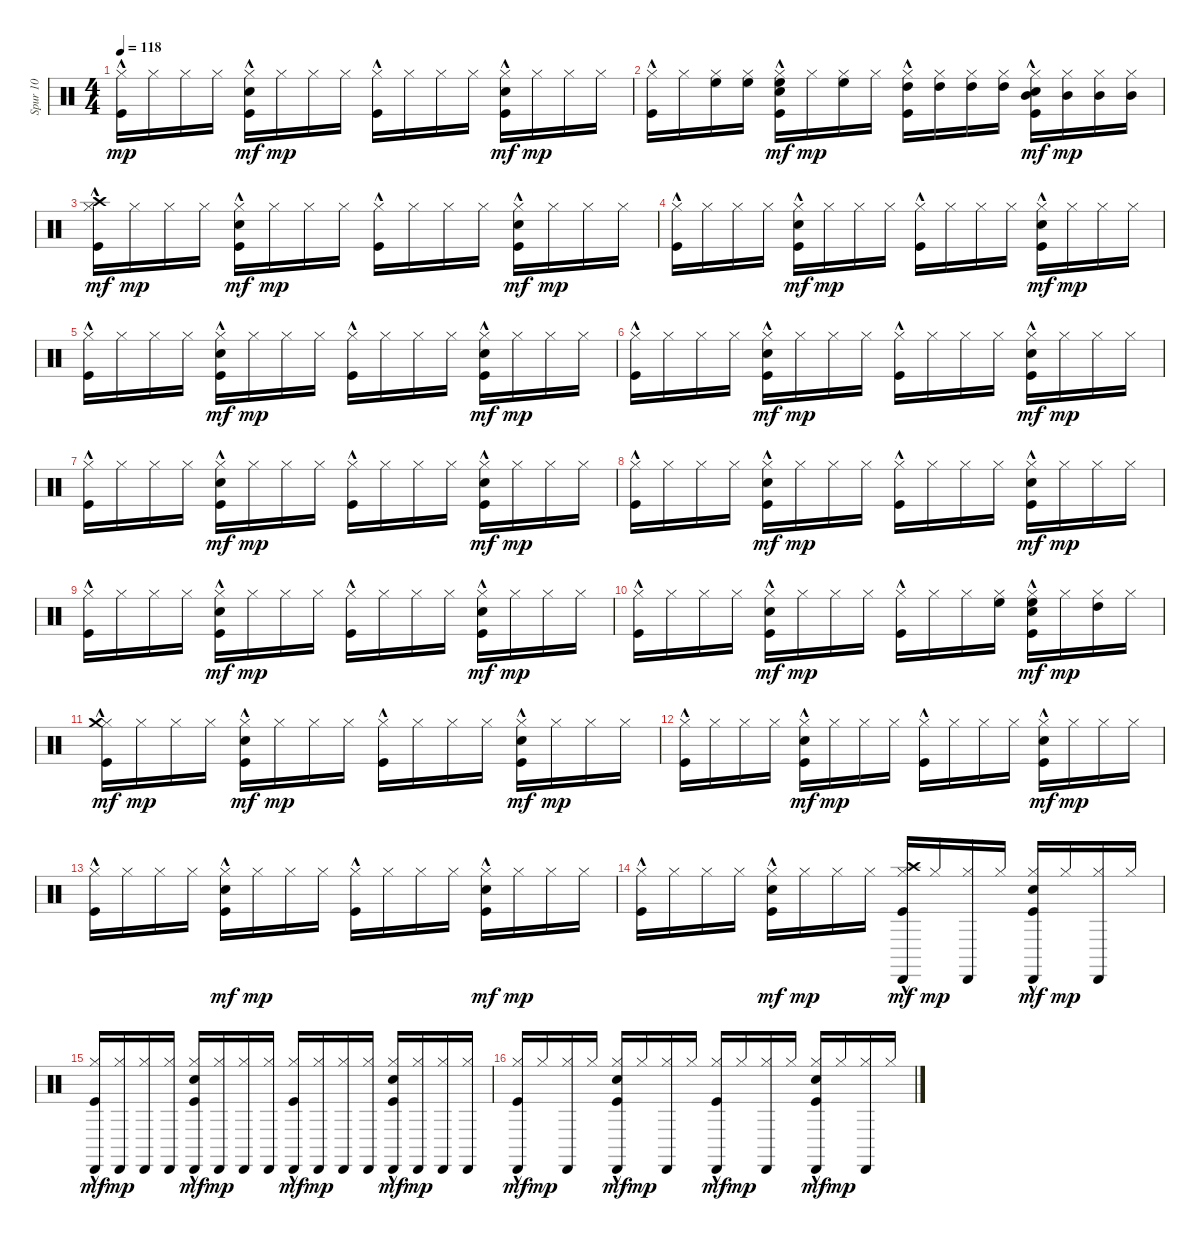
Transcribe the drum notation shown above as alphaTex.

\track ("Spur 10" "Spur 10") {instrument percussion}
\staff {score}
\articulation defaults
\ts (4 4)
\tempo 118
\clef neutral
\ks c
("Hi-Hat (closed)" "Kick (hit)"{hac}).16{dy mp} "Hi-Hat (closed)".16 "Hi-Hat (closed)".16 "Hi-Hat (closed)".16 ("Hi-Hat (closed)" "Kick (hit)"{hac} "Electric Snare (hit)").16{dy mf} "Hi-Hat (closed)".16{dy mp} "Hi-Hat (closed)".16 "Hi-Hat (closed)".16 ("Hi-Hat (closed)" "Kick (hit)"{hac}).16 "Hi-Hat (closed)".16 "Hi-Hat (closed)".16 "Hi-Hat (closed)".16 ("Hi-Hat (closed)" "Kick (hit)"{hac} "Electric Snare (hit)").16{dy mf} "Hi-Hat (closed)".16{dy mp} "Hi-Hat (closed)".16 "Hi-Hat (closed)".16 |
("Hi-Hat (closed)" "Kick (hit)"{hac}).16 "Hi-Hat (closed)".16 ("High Floor Tom (hit)" "Hi-Hat (closed)").16 ("High Floor Tom (hit)" "Hi-Hat (closed)").16 ("High Floor Tom (hit)" "Hi-Hat (closed)" "Kick (hit)"{hac} "Electric Snare (hit)").16{dy mf} "Hi-Hat (closed)".16{dy mp} ("High Floor Tom (hit)" "Hi-Hat (closed)").16 "Hi-Hat (closed)".16 ("High Tom (hit)" "Hi-Hat (closed)" "Kick (hit)"{hac}).16 ("High Tom (hit)" "Hi-Hat (closed)").16 ("High Tom (hit)" "Hi-Hat (closed)").16 ("High Tom (hit)" "Hi-Hat (closed)").16 ("Mid Tom (hit)" "Hi-Hat (closed)" "Kick (hit)"{hac} "Electric Snare (hit)").16{dy mf} ("Mid Tom (hit)" "Hi-Hat (closed)").16{dy mp} ("Mid Tom (hit)" "Hi-Hat (closed)").16 ("Mid Tom (hit)" "Hi-Hat (closed)").16 |
("Hi-Hat (closed)" "Kick (hit)"{hac} "Crash high (hit)"{hac}).16{dy mf} "Hi-Hat (closed)".16{dy mp} "Hi-Hat (closed)".16 "Hi-Hat (closed)".16 ("Hi-Hat (closed)" "Kick (hit)"{hac} "Electric Snare (hit)").16{dy mf} "Hi-Hat (closed)".16{dy mp} "Hi-Hat (closed)".16 "Hi-Hat (closed)".16 ("Hi-Hat (closed)" "Kick (hit)"{hac}).16 "Hi-Hat (closed)".16 "Hi-Hat (closed)".16 "Hi-Hat (closed)".16 ("Hi-Hat (closed)" "Kick (hit)"{hac} "Electric Snare (hit)").16{dy mf} "Hi-Hat (closed)".16{dy mp} "Hi-Hat (closed)".16 "Hi-Hat (closed)".16 |
("Hi-Hat (closed)" "Kick (hit)"{hac}).16 "Hi-Hat (closed)".16 "Hi-Hat (closed)".16 "Hi-Hat (closed)".16 ("Hi-Hat (closed)" "Kick (hit)"{hac} "Electric Snare (hit)").16{dy mf} "Hi-Hat (closed)".16{dy mp} "Hi-Hat (closed)".16 "Hi-Hat (closed)".16 ("Hi-Hat (closed)" "Kick (hit)"{hac}).16 "Hi-Hat (closed)".16 "Hi-Hat (closed)".16 "Hi-Hat (closed)".16 ("Hi-Hat (closed)" "Kick (hit)"{hac} "Electric Snare (hit)").16{dy mf} "Hi-Hat (closed)".16{dy mp} "Hi-Hat (closed)".16 "Hi-Hat (closed)".16 |
("Hi-Hat (closed)" "Kick (hit)"{hac}).16 "Hi-Hat (closed)".16 "Hi-Hat (closed)".16 "Hi-Hat (closed)".16 ("Hi-Hat (closed)" "Kick (hit)"{hac} "Electric Snare (hit)").16{dy mf} "Hi-Hat (closed)".16{dy mp} "Hi-Hat (closed)".16 "Hi-Hat (closed)".16 ("Hi-Hat (closed)" "Kick (hit)"{hac}).16 "Hi-Hat (closed)".16 "Hi-Hat (closed)".16 "Hi-Hat (closed)".16 ("Hi-Hat (closed)" "Kick (hit)"{hac} "Electric Snare (hit)").16{dy mf} "Hi-Hat (closed)".16{dy mp} "Hi-Hat (closed)".16 "Hi-Hat (closed)".16 |
("Hi-Hat (closed)" "Kick (hit)"{hac}).16 "Hi-Hat (closed)".16 "Hi-Hat (closed)".16 "Hi-Hat (closed)".16 ("Hi-Hat (closed)" "Kick (hit)"{hac} "Electric Snare (hit)").16{dy mf} "Hi-Hat (closed)".16{dy mp} "Hi-Hat (closed)".16 "Hi-Hat (closed)".16 ("Hi-Hat (closed)" "Kick (hit)"{hac}).16 "Hi-Hat (closed)".16 "Hi-Hat (closed)".16 "Hi-Hat (closed)".16 ("Hi-Hat (closed)" "Kick (hit)"{hac} "Electric Snare (hit)").16{dy mf} "Hi-Hat (closed)".16{dy mp} "Hi-Hat (closed)".16 "Hi-Hat (closed)".16 |
("Hi-Hat (closed)" "Kick (hit)"{hac}).16 "Hi-Hat (closed)".16 "Hi-Hat (closed)".16 "Hi-Hat (closed)".16 ("Hi-Hat (closed)" "Kick (hit)"{hac} "Electric Snare (hit)").16{dy mf} "Hi-Hat (closed)".16{dy mp} "Hi-Hat (closed)".16 "Hi-Hat (closed)".16 ("Hi-Hat (closed)" "Kick (hit)"{hac}).16 "Hi-Hat (closed)".16 "Hi-Hat (closed)".16 "Hi-Hat (closed)".16 ("Hi-Hat (closed)" "Kick (hit)"{hac} "Electric Snare (hit)").16{dy mf} "Hi-Hat (closed)".16{dy mp} "Hi-Hat (closed)".16 "Hi-Hat (closed)".16 |
("Hi-Hat (closed)" "Kick (hit)"{hac}).16 "Hi-Hat (closed)".16 "Hi-Hat (closed)".16 "Hi-Hat (closed)".16 ("Hi-Hat (closed)" "Kick (hit)"{hac} "Electric Snare (hit)").16{dy mf} "Hi-Hat (closed)".16{dy mp} "Hi-Hat (closed)".16 "Hi-Hat (closed)".16 ("Hi-Hat (closed)" "Kick (hit)"{hac}).16 "Hi-Hat (closed)".16 "Hi-Hat (closed)".16 "Hi-Hat (closed)".16 ("Hi-Hat (closed)" "Kick (hit)"{hac} "Electric Snare (hit)").16{dy mf} "Hi-Hat (closed)".16{dy mp} "Hi-Hat (closed)".16 "Hi-Hat (closed)".16 |
("Hi-Hat (closed)" "Kick (hit)"{hac}).16 "Hi-Hat (closed)".16 "Hi-Hat (closed)".16 "Hi-Hat (closed)".16 ("Hi-Hat (closed)" "Kick (hit)"{hac} "Electric Snare (hit)").16{dy mf} "Hi-Hat (closed)".16{dy mp} "Hi-Hat (closed)".16 "Hi-Hat (closed)".16 ("Hi-Hat (closed)" "Kick (hit)"{hac}).16 "Hi-Hat (closed)".16 "Hi-Hat (closed)".16 "Hi-Hat (closed)".16 ("Hi-Hat (closed)" "Kick (hit)"{hac} "Electric Snare (hit)").16{dy mf} "Hi-Hat (closed)".16{dy mp} "Hi-Hat (closed)".16 "Hi-Hat (closed)".16 |
("Hi-Hat (closed)" "Kick (hit)"{hac}).16 "Hi-Hat (closed)".16 "Hi-Hat (closed)".16 "Hi-Hat (closed)".16 ("Hi-Hat (closed)" "Kick (hit)"{hac} "Electric Snare (hit)").16{dy mf} "Hi-Hat (closed)".16{dy mp} "Hi-Hat (closed)".16 "Hi-Hat (closed)".16 ("Hi-Hat (closed)" "Kick (hit)"{hac}).16 "Hi-Hat (closed)".16 "Hi-Hat (closed)".16 ("Hi-Hat (closed)" "High Floor Tom (hit)").16 ("High Floor Tom (hit)" "Hi-Hat (closed)" "Kick (hit)"{hac} "Electric Snare (hit)").16{dy mf} "Hi-Hat (closed)".16{dy mp} ("Hi-Hat (closed)" "High Tom (hit)").16 "Hi-Hat (closed)".16 |
("Hi-Hat (closed)" "Kick (hit)"{hac} "Crash medium (hit)"{hac}).16{dy mf} "Hi-Hat (closed)".16{dy mp} "Hi-Hat (closed)".16 "Hi-Hat (closed)".16 ("Hi-Hat (closed)" "Kick (hit)"{hac} "Electric Snare (hit)").16{dy mf} "Hi-Hat (closed)".16{dy mp} "Hi-Hat (closed)".16 "Hi-Hat (closed)".16 ("Hi-Hat (closed)" "Kick (hit)"{hac}).16 "Hi-Hat (closed)".16 "Hi-Hat (closed)".16 "Hi-Hat (closed)".16 ("Hi-Hat (closed)" "Kick (hit)"{hac} "Electric Snare (hit)").16{dy mf} "Hi-Hat (closed)".16{dy mp} "Hi-Hat (closed)".16 "Hi-Hat (closed)".16 |
("Hi-Hat (closed)" "Kick (hit)"{hac}).16 "Hi-Hat (closed)".16 "Hi-Hat (closed)".16 "Hi-Hat (closed)".16 ("Hi-Hat (closed)" "Kick (hit)"{hac} "Electric Snare (hit)").16{dy mf} "Hi-Hat (closed)".16{dy mp} "Hi-Hat (closed)".16 "Hi-Hat (closed)".16 ("Hi-Hat (closed)" "Kick (hit)"{hac}).16 "Hi-Hat (closed)".16 "Hi-Hat (closed)".16 "Hi-Hat (closed)".16 ("Hi-Hat (closed)" "Kick (hit)"{hac} "Electric Snare (hit)").16{dy mf} "Hi-Hat (closed)".16{dy mp} "Hi-Hat (closed)".16 "Hi-Hat (closed)".16 |
("Hi-Hat (closed)" "Kick (hit)"{hac}).16 "Hi-Hat (closed)".16 "Hi-Hat (closed)".16 "Hi-Hat (closed)".16 ("Hi-Hat (closed)" "Kick (hit)"{hac} "Electric Snare (hit)").16{dy mf} "Hi-Hat (closed)".16{dy mp} "Hi-Hat (closed)".16 "Hi-Hat (closed)".16 ("Hi-Hat (closed)" "Kick (hit)"{hac}).16 "Hi-Hat (closed)".16 "Hi-Hat (closed)".16 "Hi-Hat (closed)".16 ("Hi-Hat (closed)" "Kick (hit)"{hac} "Electric Snare (hit)").16{dy mf} "Hi-Hat (closed)".16{dy mp} "Hi-Hat (closed)".16 "Hi-Hat (closed)".16 |
("Hi-Hat (closed)" "Kick (hit)"{hac}).16 "Hi-Hat (closed)".16 "Hi-Hat (closed)".16 "Hi-Hat (closed)".16 ("Hi-Hat (closed)" "Kick (hit)"{hac} "Electric Snare (hit)").16{dy mf} "Hi-Hat (closed)".16{dy mp} "Hi-Hat (closed)".16 "Hi-Hat (closed)".16 ("Hi-Hat (closed)" "Kick (hit)"{hac} "Crash high (hit)"{hac} "Cabasa (hit)").16{dy mf} "Hi-Hat (closed)".16{dy mp} ("Hi-Hat (closed)" "Cabasa (hit)").16 "Hi-Hat (closed)".16 ("Hi-Hat (closed)" "Kick (hit)"{hac} "Electric Snare (hit)" "Cabasa (hit)").16{dy mf} "Hi-Hat (closed)".16{dy mp} ("Hi-Hat (closed)" "Cabasa (hit)").16 "Hi-Hat (closed)".16 |
("Hi-Hat (closed)" "Kick (hit)"{hac} "Cabasa (hit)").16{dy mf} ("Hi-Hat (closed)" "Cabasa (hit)").16{dy mp} ("Hi-Hat (closed)" "Cabasa (hit)").16 ("Hi-Hat (closed)" "Cabasa (hit)").16 ("Hi-Hat (closed)" "Kick (hit)"{hac} "Electric Snare (hit)" "Cabasa (hit)").16{dy mf} ("Hi-Hat (closed)" "Cabasa (hit)").16{dy mp} ("Hi-Hat (closed)" "Cabasa (hit)").16 ("Hi-Hat (closed)" "Cabasa (hit)").16 ("Hi-Hat (closed)" "Kick (hit)"{hac} "Cabasa (hit)").16{dy mf} ("Hi-Hat (closed)" "Cabasa (hit)").16{dy mp} ("Hi-Hat (closed)" "Cabasa (hit)").16 ("Hi-Hat (closed)" "Cabasa (hit)").16 ("Hi-Hat (closed)" "Kick (hit)"{hac} "Electric Snare (hit)" "Cabasa (hit)").16{dy mf} ("Hi-Hat (closed)" "Cabasa (hit)").16{dy mp} ("Hi-Hat (closed)" "Cabasa (hit)").16 ("Hi-Hat (closed)" "Cabasa (hit)").16 |
("Hi-Hat (closed)" "Kick (hit)"{hac} "Cabasa (hit)").16{dy mf} "Hi-Hat (closed)".16{dy mp} ("Hi-Hat (closed)" "Cabasa (hit)").16 "Hi-Hat (closed)".16 ("Hi-Hat (closed)" "Kick (hit)"{hac} "Electric Snare (hit)" "Cabasa (hit)").16{dy mf} "Hi-Hat (closed)".16{dy mp} ("Hi-Hat (closed)" "Cabasa (hit)").16 "Hi-Hat (closed)".16 ("Hi-Hat (closed)" "Kick (hit)"{hac} "Cabasa (hit)").16{dy mf} "Hi-Hat (closed)".16{dy mp} ("Hi-Hat (closed)" "Cabasa (hit)").16 "Hi-Hat (closed)".16 ("Hi-Hat (closed)" "Kick (hit)"{hac} "Electric Snare (hit)" "Cabasa (hit)").16{dy mf} "Hi-Hat (closed)".16{dy mp} ("Hi-Hat (closed)" "Cabasa (hit)").16 "Hi-Hat (closed)".16
